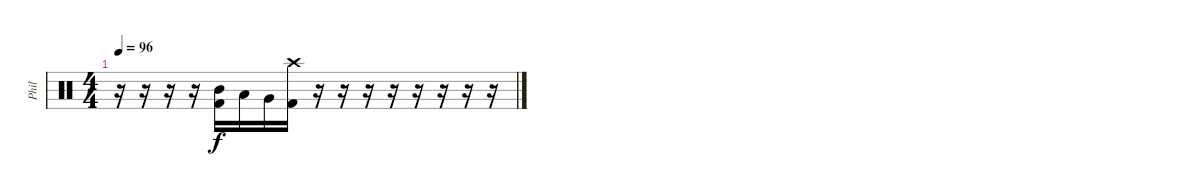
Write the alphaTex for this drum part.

\track ("Phil" "Phil") {instrument percussion}
\staff {score}
\articulation defaults
\ts (4 4)
\tempo 96
\clef neutral
\ks c
r.16{dy f} r.16 r.16 r.16 ("Mid Tom (hit)" "Kick (hit) 2").16 "Low Tom (hit)".16 "Very Low Tom (hit)".16 ("Crash high (hit)" "Kick (hit) 2").16 r.16 r.16 r.16 r.16 r.16 r.16 r.16 r.16
